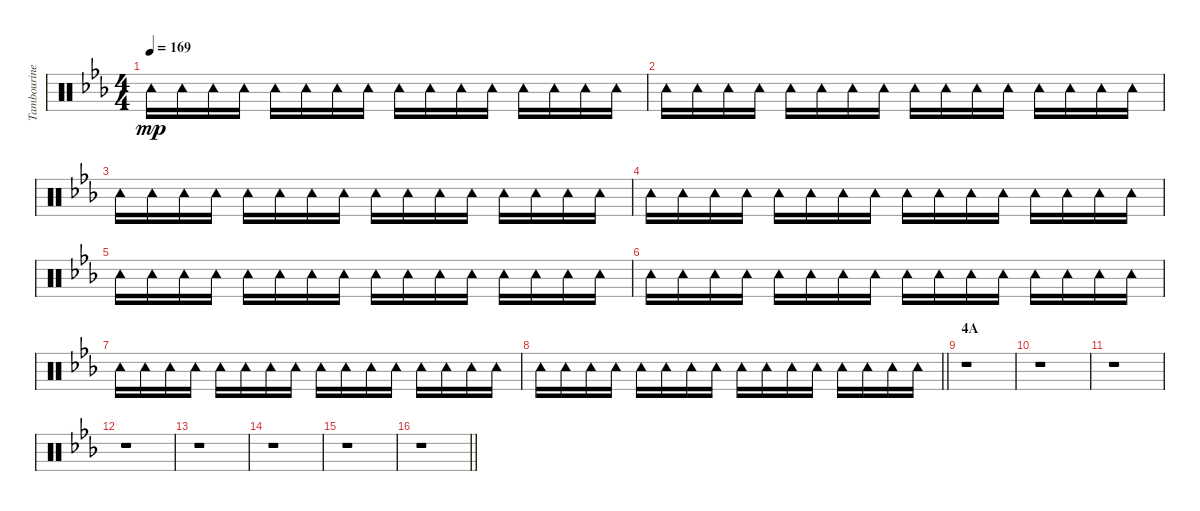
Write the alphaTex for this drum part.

\track ("Tambourine" "Tambourine") {instrument percussion}
\staff {score}
\articulation defaults
\ts (4 4)
\tempo 169
\clef neutral
\ks eb "Tambourine (hit)".16{dy mp} "Tambourine (hit)".16 "Tambourine (hit)".16 "Tambourine (hit)".16 "Tambourine (hit)".16 "Tambourine (hit)".16 "Tambourine (hit)".16 "Tambourine (hit)".16 "Tambourine (hit)".16 "Tambourine (hit)".16 "Tambourine (hit)".16 "Tambourine (hit)".16 "Tambourine (hit)".16 "Tambourine (hit)".16 "Tambourine (hit)".16 "Tambourine (hit)".16
|
"Tambourine (hit)".16 "Tambourine (hit)".16 "Tambourine (hit)".16 "Tambourine (hit)".16 "Tambourine (hit)".16 "Tambourine (hit)".16 "Tambourine (hit)".16 "Tambourine (hit)".16 "Tambourine (hit)".16 "Tambourine (hit)".16 "Tambourine (hit)".16 "Tambourine (hit)".16 "Tambourine (hit)".16 "Tambourine (hit)".16 "Tambourine (hit)".16 "Tambourine (hit)".16 |
"Tambourine (hit)".16 "Tambourine (hit)".16 "Tambourine (hit)".16 "Tambourine (hit)".16 "Tambourine (hit)".16 "Tambourine (hit)".16 "Tambourine (hit)".16 "Tambourine (hit)".16 "Tambourine (hit)".16 "Tambourine (hit)".16 "Tambourine (hit)".16 "Tambourine (hit)".16 "Tambourine (hit)".16 "Tambourine (hit)".16 "Tambourine (hit)".16 "Tambourine (hit)".16 |
"Tambourine (hit)".16 "Tambourine (hit)".16 "Tambourine (hit)".16 "Tambourine (hit)".16 "Tambourine (hit)".16 "Tambourine (hit)".16 "Tambourine (hit)".16 "Tambourine (hit)".16 "Tambourine (hit)".16 "Tambourine (hit)".16 "Tambourine (hit)".16 "Tambourine (hit)".16 "Tambourine (hit)".16 "Tambourine (hit)".16 "Tambourine (hit)".16 "Tambourine (hit)".16 |
"Tambourine (hit)".16 "Tambourine (hit)".16 "Tambourine (hit)".16 "Tambourine (hit)".16 "Tambourine (hit)".16 "Tambourine (hit)".16 "Tambourine (hit)".16 "Tambourine (hit)".16 "Tambourine (hit)".16 "Tambourine (hit)".16 "Tambourine (hit)".16 "Tambourine (hit)".16 "Tambourine (hit)".16 "Tambourine (hit)".16 "Tambourine (hit)".16 "Tambourine (hit)".16 |
"Tambourine (hit)".16 "Tambourine (hit)".16 "Tambourine (hit)".16 "Tambourine (hit)".16 "Tambourine (hit)".16 "Tambourine (hit)".16 "Tambourine (hit)".16 "Tambourine (hit)".16 "Tambourine (hit)".16 "Tambourine (hit)".16 "Tambourine (hit)".16 "Tambourine (hit)".16 "Tambourine (hit)".16 "Tambourine (hit)".16 "Tambourine (hit)".16 "Tambourine (hit)".16 |
"Tambourine (hit)".16 "Tambourine (hit)".16 "Tambourine (hit)".16 "Tambourine (hit)".16 "Tambourine (hit)".16 "Tambourine (hit)".16 "Tambourine (hit)".16 "Tambourine (hit)".16 "Tambourine (hit)".16 "Tambourine (hit)".16 "Tambourine (hit)".16 "Tambourine (hit)".16 "Tambourine (hit)".16 "Tambourine (hit)".16 "Tambourine (hit)".16 "Tambourine (hit)".16 |
\barLineRight lightlight "Tambourine (hit)".16 "Tambourine (hit)".16 "Tambourine (hit)".16 "Tambourine (hit)".16 "Tambourine (hit)".16 "Tambourine (hit)".16 "Tambourine (hit)".16 "Tambourine (hit)".16 "Tambourine (hit)".16 "Tambourine (hit)".16 "Tambourine (hit)".16 "Tambourine (hit)".16 "Tambourine (hit)".16 "Tambourine (hit)".16 "Tambourine (hit)".16 "Tambourine (hit)".16
|
\section ("" "4A")
r.1 |
r.1 |
r.1 |
r.1 |
r.1 |
r.1 |
r.1 |
\barLineRight lightlight
r.1
